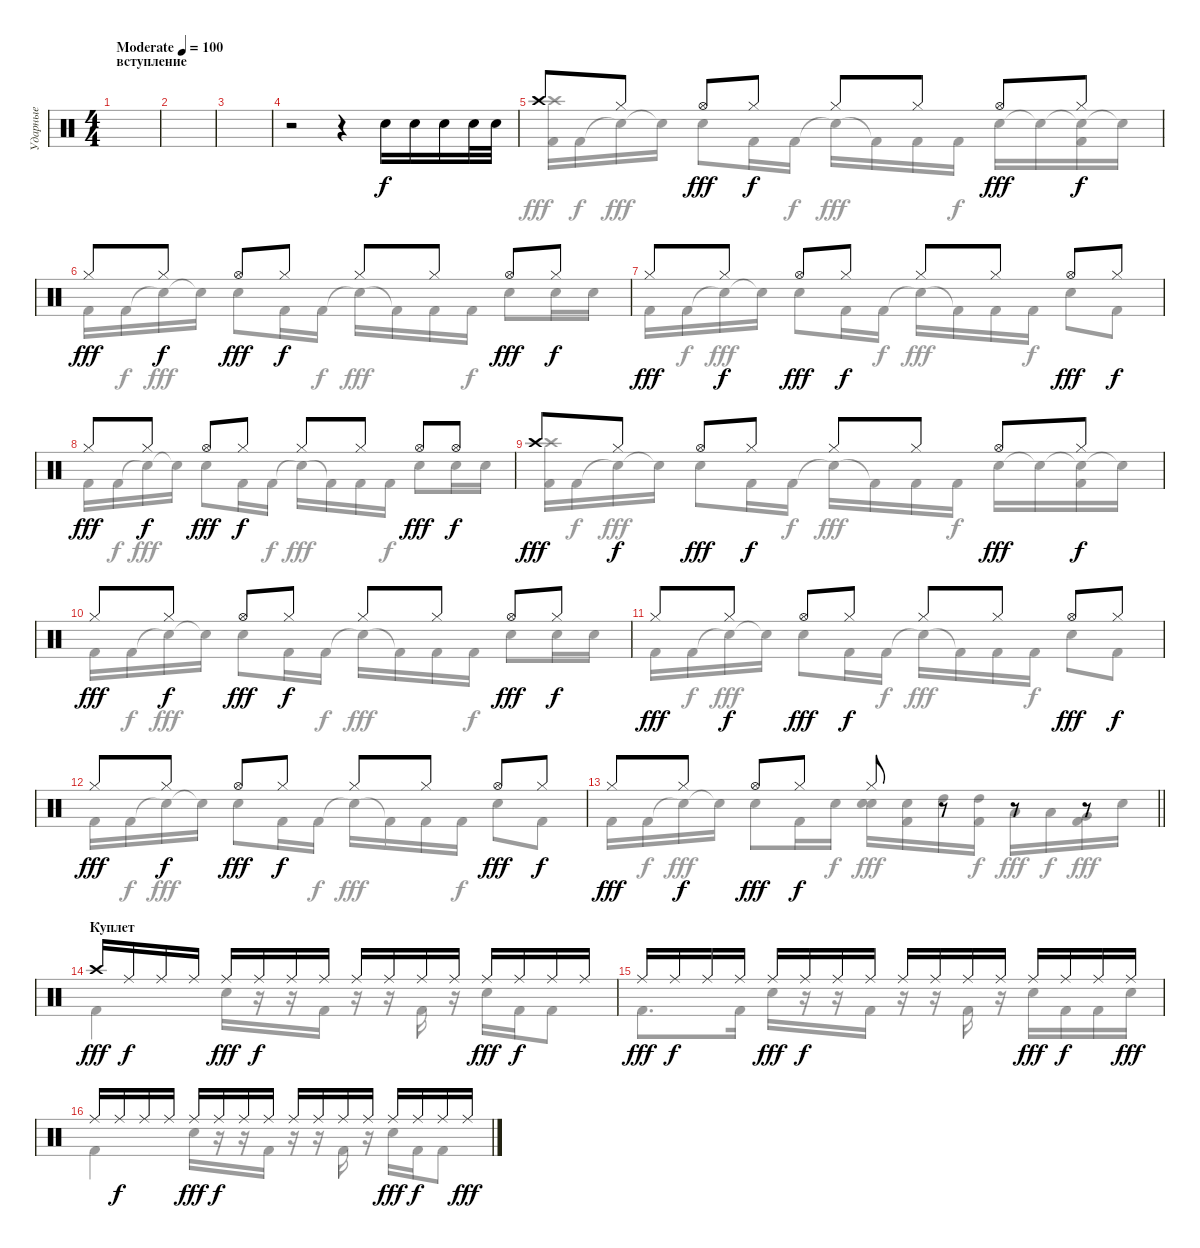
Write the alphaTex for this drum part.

\track ("Ударные" "Ударные") {instrument percussion}
\staff {score}
\articulation defaults
\voice
\ts (4 4)
\section ("" "вступление")
\tempo (100 "Moderate")
\clef neutral
\ks c
|
|
|
r.2 r.4 "Snare (hit) 2".16 "Snare (hit) 2".16 "Snare (hit) 2".16 "Snare (hit) 2".32 "Snare (hit) 2".32 |
"Crash high (hit)".8 "Hi-Hat (closed)".8{dy f} "Hi-Hat (open)".8{dy fff} "Hi-Hat (closed)".8{dy f} "Hi-Hat (closed)".8 "Hi-Hat (closed)".8 "Hi-Hat (open)".8{dy fff} "Hi-Hat (closed)".8{dy f} |
"Hi-Hat (closed)".8{dy fff} "Hi-Hat (closed)".8{dy f} "Hi-Hat (open)".8{dy fff} "Hi-Hat (closed)".8{dy f} "Hi-Hat (closed)".8 "Hi-Hat (closed)".8 "Hi-Hat (open)".8{dy fff} "Hi-Hat (closed)".8{dy f} |
"Hi-Hat (closed)".8{dy fff} "Hi-Hat (closed)".8{dy f} "Hi-Hat (open)".8{dy fff} "Hi-Hat (closed)".8{dy f} "Hi-Hat (closed)".8 "Hi-Hat (closed)".8 "Hi-Hat (open)".8{dy fff} "Hi-Hat (closed)".8{dy f} |
"Hi-Hat (closed)".8{dy fff} "Hi-Hat (closed)".8{dy f} "Hi-Hat (open)".8{dy fff} "Hi-Hat (closed)".8{dy f} "Hi-Hat (closed)".8 "Hi-Hat (closed)".8 "Hi-Hat (open)".8{dy fff} "Hi-Hat (open)".8{dy f} |
"Crash high (hit)".8{dy fff} "Hi-Hat (closed)".8{dy f} "Hi-Hat (open)".8{dy fff} "Hi-Hat (closed)".8{dy f} "Hi-Hat (closed)".8 "Hi-Hat (closed)".8 "Hi-Hat (open)".8{dy fff} "Hi-Hat (closed)".8{dy f} |
"Hi-Hat (closed)".8{dy fff} "Hi-Hat (closed)".8{dy f} "Hi-Hat (open)".8{dy fff} "Hi-Hat (closed)".8{dy f} "Hi-Hat (closed)".8 "Hi-Hat (closed)".8 "Hi-Hat (open)".8{dy fff} "Hi-Hat (closed)".8{dy f} |
"Hi-Hat (closed)".8{dy fff} "Hi-Hat (closed)".8{dy f} "Hi-Hat (open)".8{dy fff} "Hi-Hat (closed)".8{dy f} "Hi-Hat (closed)".8 "Hi-Hat (closed)".8 "Hi-Hat (open)".8{dy fff} "Hi-Hat (closed)".8{dy f} |
"Hi-Hat (closed)".8{dy fff} "Hi-Hat (closed)".8{dy f} "Hi-Hat (open)".8{dy fff} "Hi-Hat (closed)".8{dy f} "Hi-Hat (closed)".8 "Hi-Hat (closed)".8 "Hi-Hat (open)".8{dy fff} "Hi-Hat (closed)".8{dy f} |
\barLineRight lightlight "Hi-Hat (closed)".8{dy fff} "Hi-Hat (closed)".8{dy f} "Hi-Hat (open)".8{dy fff} "Hi-Hat (closed)".8{dy f} "Hi-Hat (closed)".8
r.8 r.8 r.8 |
\section ("" "Куплет")
"Crash high (hit)".16{dy fff} "Ride (middle)".16{dy f} "Ride (middle)".16 "Ride (middle)".16 "Ride (middle)".16{dy fff} "Ride (middle)".16{dy f} "Ride (middle)".16 "Ride (middle)".16 "Ride (middle)".16 "Ride (middle)".16 "Ride (middle)".16 "Ride (middle)".16 "Ride (middle)".16{dy fff} "Ride (middle)".16{dy f} "Ride (middle)".16 "Ride (middle)".16 |
"Ride (middle)".16{dy fff} "Ride (middle)".16{dy f} "Ride (middle)".16 "Ride (middle)".16 "Ride (middle)".16{dy fff} "Ride (middle)".16{dy f} "Ride (middle)".16 "Ride (middle)".16 "Ride (middle)".16 "Ride (middle)".16 "Ride (middle)".16 "Ride (middle)".16 "Ride (middle)".16{dy fff} "Ride (middle)".16{dy f} "Ride (middle)".16 "Ride (middle)".16{dy fff} |
"Ride (middle)".16 "Ride (middle)".16{dy f} "Ride (middle)".16 "Ride (middle)".16 "Ride (middle)".16{dy fff} "Ride (middle)".16{dy f} "Ride (middle)".16 "Ride (middle)".16 "Ride (middle)".16 "Ride (middle)".16 "Ride (middle)".16 "Ride (middle)".16 "Ride (middle)".16{dy fff} "Ride (middle)".16{dy f} "Ride (middle)".16 "Ride (middle)".16{dy fff}
\voice
\clef neutral
\ottava regular
\simile none
\ks c
|
|
|
|
("Crash high (hit)" "Kick (hit) 2").16 "Kick (hit) 2".16{dy f} "Snare (hit)"{t}.16{dy fff} "Snare (hit)"{t}.16 "Snare (hit) 2".8 "Kick (hit) 2".16 "Kick (hit) 2".16{dy f} "Snare (hit)"{t}.16{dy fff} "Kick (hit) 2"{t}.16 "Kick (hit) 2".16 "Kick (hit) 2".16{dy f} "Snare (hit) 2".16{dy fff} "Snare (hit) 2"{t}.16 ("Snare (hit) 2"{t} "Kick (hit) 2").16 "Snare (hit) 2"{t}.16 |
"Kick (hit) 2".16 "Kick (hit) 2".16{dy f} "Snare (hit)"{t}.16{dy fff} "Snare (hit)"{t}.16 "Snare (hit) 2".8 "Kick (hit) 2".16 "Kick (hit) 2".16{dy f} "Snare (hit)"{t}.16{dy fff} "Kick (hit) 2"{t}.16 "Kick (hit) 2".16 "Kick (hit) 2".16{dy f} "Snare (hit) 2".8{dy fff} "Snare (hit) 2".16 "Snare (hit) 2".16 |
"Kick (hit) 2".16 "Kick (hit) 2".16{dy f} "Snare (hit)"{t}.16{dy fff} "Snare (hit)"{t}.16 "Snare (hit) 2".8 "Kick (hit) 2".16 "Kick (hit) 2".16{dy f} "Snare (hit)"{t}.16{dy fff} "Kick (hit) 2"{t}.16 "Kick (hit) 2".16 "Kick (hit) 2".16{dy f} "Snare (hit) 2".8{dy fff} "Kick (hit) 2".8{dy f} |
"Kick (hit) 2".16{dy fff} "Kick (hit) 2".16{dy f} "Snare (hit)"{t}.16{dy fff} "Snare (hit)"{t}.16 "Snare (hit) 2".8 "Kick (hit) 2".16 "Kick (hit) 2".16{dy f} "Snare (hit)"{t}.16{dy fff} "Kick (hit) 2"{t}.16 "Kick (hit) 2".16 "Kick (hit) 2".16{dy f} "Snare (hit) 2".8{dy fff} "Snare (hit) 2".16 "Snare (hit) 2".16 |
("Crash high (hit)" "Kick (hit) 2").16 "Kick (hit) 2".16{dy f} "Snare (hit)"{t}.16{dy fff} "Snare (hit)"{t}.16 "Snare (hit) 2".8 "Kick (hit) 2".16 "Kick (hit) 2".16{dy f} "Snare (hit)"{t}.16{dy fff} "Kick (hit) 2"{t}.16 "Kick (hit) 2".16 "Kick (hit) 2".16{dy f} "Snare (hit) 2".16{dy fff} "Snare (hit) 2"{t}.16 ("Snare (hit) 2"{t} "Kick (hit) 2").16 "Snare (hit) 2"{t}.16 |
"Kick (hit) 2".16 "Kick (hit) 2".16{dy f} "Snare (hit)"{t}.16{dy fff} "Snare (hit)"{t}.16 "Snare (hit) 2".8 "Kick (hit) 2".16 "Kick (hit) 2".16{dy f} "Snare (hit)"{t}.16{dy fff} "Kick (hit) 2"{t}.16 "Kick (hit) 2".16 "Kick (hit) 2".16{dy f} "Snare (hit) 2".8{dy fff} "Snare (hit) 2".16 "Snare (hit) 2".16 |
"Kick (hit) 2".16 "Kick (hit) 2".16{dy f} "Snare (hit)"{t}.16{dy fff} "Snare (hit)"{t}.16 "Snare (hit) 2".8 "Kick (hit) 2".16 "Kick (hit) 2".16{dy f} "Snare (hit)"{t}.16{dy fff} "Kick (hit) 2"{t}.16 "Kick (hit) 2".16 "Kick (hit) 2".16{dy f} "Snare (hit) 2".8{dy fff} "Kick (hit) 2".8{dy f} |
"Kick (hit) 2".16{dy fff} "Kick (hit) 2".16{dy f} "Snare (hit)"{t}.16{dy fff} "Snare (hit)"{t}.16 "Snare (hit) 2".8 "Kick (hit) 2".16 "Kick (hit) 2".16{dy f} "Snare (hit)"{t}.16{dy fff} "Kick (hit) 2"{t}.16 "Kick (hit) 2".16 "Kick (hit) 2".16{dy f} "Snare (hit) 2".8{dy fff} "Kick (hit) 2".8{dy f} |
\barLineRight lightlight "Kick (hit) 2".16{dy fff} "Kick (hit) 2".16{dy f} "Snare (hit)"{t}.16{dy fff} "Snare (hit)"{t}.16 "Snare (hit) 2".8 "Kick (hit) 2".16 "Snare (hit) 2".16{dy f}
("Snare (hit) 2" "Snare (hit)").16{dy fff} ("Snare (hit) 2" "Kick (hit) 2").16 "High Tom (hit)".16 ("High Tom (hit)" "Kick (hit) 2").16{dy f} "Low Tom (hit)".16{dy fff} "Low Tom (hit)".16{dy f} ("Very Low Tom (hit)" "Kick (hit) 2").16{dy fff} "Snare (hit) 2".16 |
"Kick (hit) 2".4 "Snare (hit) 2".16 r.16 r.16 "Kick (hit) 2".16 r.16 r.16 "Kick (hit) 2".16 r.16 "Snare (hit) 2".16 "Kick (hit) 2".16 "Kick (hit) 2".8 |
"Kick (hit) 2".8{d} "Kick (hit) 2".16 "Snare (hit) 2".16 r.16 r.16 "Kick (hit) 2".16 r.16 r.16 "Kick (hit) 2".16 r.16 "Snare (hit) 2".16 "Kick (hit) 2".16 "Kick (hit) 2".16 "Snare (hit) 2".16 |
"Kick (hit) 2".4 "Snare (hit) 2".16 r.16 r.16 "Kick (hit) 2".16 r.16 r.16 "Kick (hit) 2".16 r.16 "Snare (hit) 2".16 "Kick (hit) 2".16 "Kick (hit) 2".8
